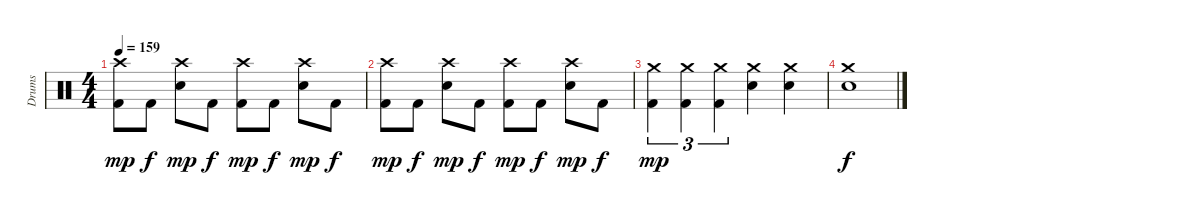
\track ("Drums" "Drums") {instrument percussion}
\staff {score}
\articulation defaults
\ts (4 4)
\tempo 159
\clef neutral
\ks c
("Crash high (hit)" "Kick (hit) 2").8{dy mp} "Kick (hit) 2".8{dy f} ("Crash high (hit)" "Electric Snare (hit)").8{dy mp} "Kick (hit) 2".8{dy f} ("Crash high (hit)" "Kick (hit) 2").8{dy mp} "Kick (hit) 2".8{dy f} ("Crash high (hit)" "Electric Snare (hit)").8{dy mp} "Kick (hit) 2".8{dy f} |
("Crash high (hit)" "Kick (hit) 2").8{dy mp} "Kick (hit) 2".8{dy f} ("Crash high (hit)" "Electric Snare (hit)").8{dy mp} "Kick (hit) 2".8{dy f} ("Crash high (hit)" "Kick (hit) 2").8{dy mp} "Kick (hit) 2".8{dy f} ("Crash high (hit)" "Electric Snare (hit)").8{dy mp} "Kick (hit) 2".8{dy f} |
("Crash medium (hit)" "Kick (hit) 2").4{tu (3 2) dy mp} ("Crash medium (hit)" "Kick (hit) 2").4{tu (3 2)} ("Crash medium (hit)" "Kick (hit) 2").4{tu (3 2)} ("Crash medium (hit)" "Electric Snare (hit)").4 ("Crash medium (hit)" "Electric Snare (hit)").4 |
("Crash medium (hit)" "Electric Snare (hit)").1{dy f}
